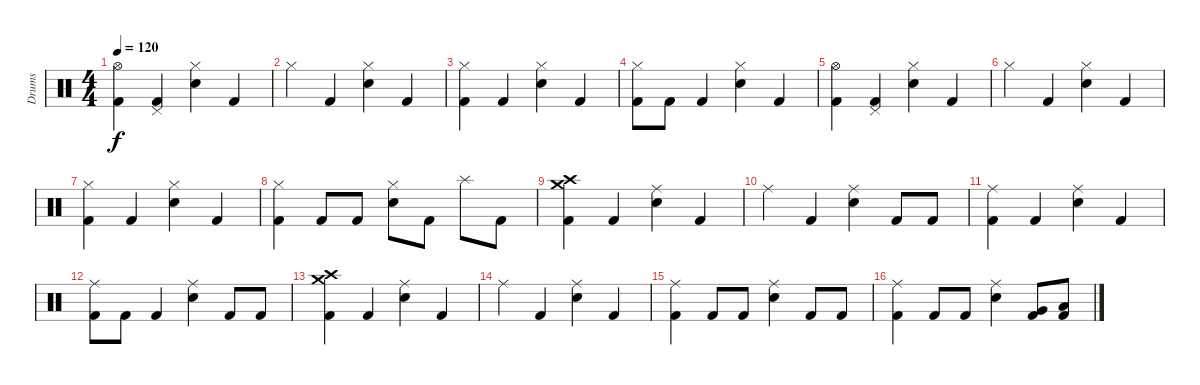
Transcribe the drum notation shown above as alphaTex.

\track ("Drums" "Drums") {instrument percussion}
\staff {score}
\articulation defaults
\ts (4 4)
\tempo 120
\clef neutral
\ks c
("Hi-Hat (open)" "Kick (hit) 2").4{dy f} ("Pedal Hi-Hat (hit)" "Kick (hit) 2").4 ("Hi-Hat (closed)" "Electric Snare (hit)").4 "Kick (hit) 2".4 |
"Hi-Hat (closed)".4 "Kick (hit) 2".4 ("Hi-Hat (closed)" "Electric Snare (hit)").4 "Kick (hit) 2".4 |
("Hi-Hat (closed)" "Kick (hit) 2").4 "Kick (hit) 2".4 ("Hi-Hat (closed)" "Electric Snare (hit)").4 "Kick (hit) 2".4 |
("Hi-Hat (closed)" "Kick (hit) 2").8 "Kick (hit) 2".8 "Kick (hit) 2".4 ("Hi-Hat (closed)" "Electric Snare (hit)").4 "Kick (hit) 2".4 |
("Hi-Hat (open)" "Kick (hit) 2").4 ("Pedal Hi-Hat (hit)" "Kick (hit) 2").4 ("Hi-Hat (closed)" "Electric Snare (hit)").4 "Kick (hit) 2".4 |
"Hi-Hat (closed)".4 "Kick (hit) 2".4 ("Hi-Hat (closed)" "Electric Snare (hit)").4 "Kick (hit) 2".4 |
("Hi-Hat (closed)" "Kick (hit) 2").4 "Kick (hit) 2".4 ("Hi-Hat (closed)" "Electric Snare (hit)").4 "Kick (hit) 2".4 |
("Hi-Hat (closed)" "Kick (hit) 2").4 "Kick (hit) 2".8 "Kick (hit) 2".8 ("Hi-Hat (closed)" "Electric Snare (hit)").8 "Kick (hit) 2".8 "Splash (hit)".8 "Kick (hit) 2".8 |
("Crash medium (hit)" "Crash high (hit)" "Kick (hit) 2").4 "Kick (hit) 2".4 ("Ride (middle)" "Electric Snare (hit)").4 "Kick (hit) 2".4 |
"Ride (middle)".4 "Kick (hit) 2".4 ("Ride (middle)" "Electric Snare (hit)").4 "Kick (hit) 2".8 "Kick (hit) 2".8 |
("Ride (middle)" "Kick (hit) 2").4 "Kick (hit) 2".4 ("Ride (middle)" "Electric Snare (hit)").4 "Kick (hit) 2".4 |
("Ride (middle)" "Kick (hit) 2").8 "Kick (hit) 2".8 "Kick (hit) 2".4 ("Ride (middle)" "Electric Snare (hit)").4 "Kick (hit) 2".8 "Kick (hit) 2".8 |
("Crash medium (hit)" "Crash high (hit)" "Kick (hit) 2").4 "Kick (hit) 2".4 ("Ride (middle)" "Electric Snare (hit)").4 "Kick (hit) 2".4 |
"Ride (middle)".4 "Kick (hit) 2".4 ("Ride (middle)" "Electric Snare (hit)").4 "Kick (hit) 2".4 |
("Ride (middle)" "Kick (hit) 2").4 "Kick (hit) 2".8 "Kick (hit) 2".8 ("Ride (middle)" "Electric Snare (hit)").4 "Kick (hit) 2".8 "Kick (hit) 2".8 |
("Ride (middle)" "Kick (hit) 2").4 "Kick (hit) 2".8 "Kick (hit) 2".8 ("Ride (middle)" "Electric Snare (hit)").4 ("Very Low Tom (hit)" "Kick (hit) 2").8 ("Low Floor Tom (hit)" "Kick (hit) 2").8
